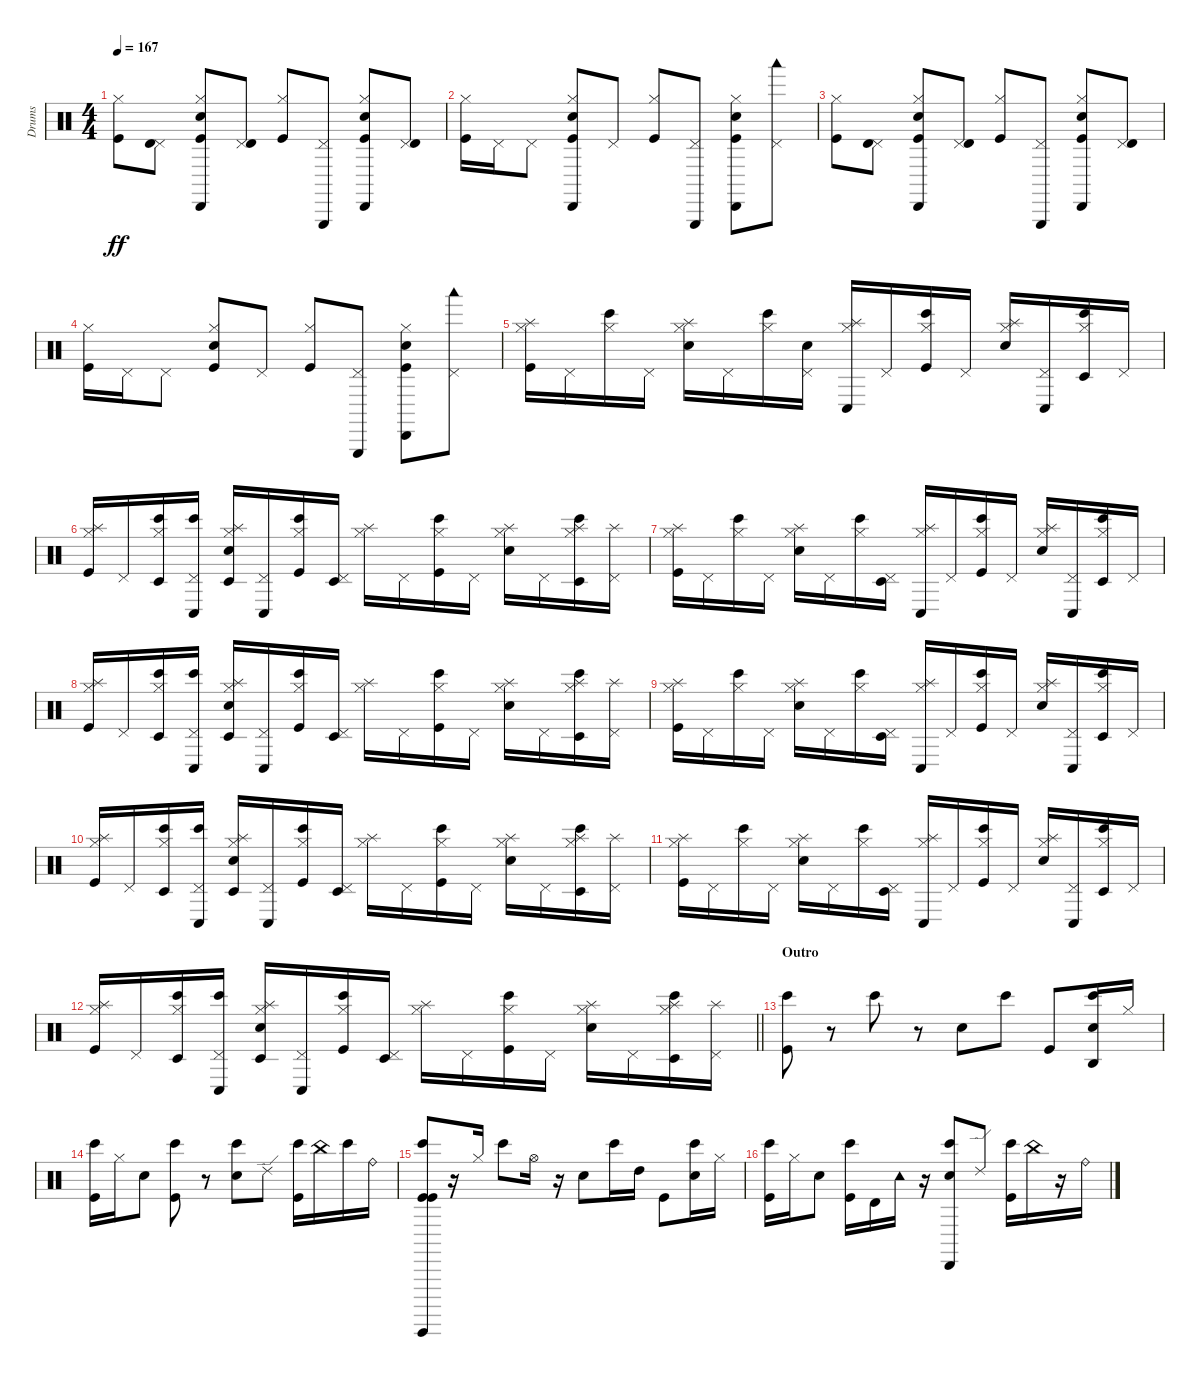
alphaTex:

\track ("Drums" "Drums") {instrument percussion}
\staff {score}
\articulation defaults
\ts (4 4)
\tempo 167
\clef neutral
\ks c
("Kick (hit)" "Hi-Hat (closed)").8{dy ff} ("Pedal Hi-Hat (hit)" "Timbale high (hit)").8 ("Kick (hit)" "Hi-Hat (closed)" "Cabasa (hit)" "Snare (hit) 2").8 ("Pedal Hi-Hat (hit)" "Timbale high (hit)").8 ("Kick (hit)" "Hi-Hat (closed)").8 ("Pedal Hi-Hat (hit)" "Triangle (hit)").8 ("Kick (hit)" "Hi-Hat (closed)" "Cabasa (hit)" "Snare (hit) 2").8 ("Pedal Hi-Hat (hit)" "Timbale high (hit)").8 |
("Kick (hit)" "Hi-Hat (closed)").16 "Pedal Hi-Hat (hit)".16 "Pedal Hi-Hat (hit)".8 ("Kick (hit)" "Hi-Hat (closed)" "Cabasa (hit)" "Snare (hit) 2").8 "Pedal Hi-Hat (hit)".8 ("Kick (hit)" "Hi-Hat (closed)").8 ("Pedal Hi-Hat (hit)" "Triangle (hit)").8 ("Kick (hit)" "Hi-Hat (closed)" "Cabasa (hit)" "Snare (hit) 2").8 ("Pedal Hi-Hat (hit)" "Woodblock low (hit)").8 |
("Kick (hit)" "Hi-Hat (closed)").8 ("Pedal Hi-Hat (hit)" "Timbale high (hit)").8 ("Kick (hit)" "Hi-Hat (closed)" "Cabasa (hit)" "Snare (hit) 2").8 ("Pedal Hi-Hat (hit)" "Timbale high (hit)").8 ("Kick (hit)" "Hi-Hat (closed)").8 ("Pedal Hi-Hat (hit)" "Triangle (hit)").8 ("Kick (hit)" "Hi-Hat (closed)" "Cabasa (hit)" "Snare (hit) 2").8 ("Pedal Hi-Hat (hit)" "Timbale high (hit)").8 |
("Kick (hit)" "Hi-Hat (closed)").16 "Pedal Hi-Hat (hit)".16 "Pedal Hi-Hat (hit)".8 ("Kick (hit)" "Hi-Hat (closed)" "Snare (hit) 2").8 "Pedal Hi-Hat (hit)".8 ("Kick (hit)" "Hi-Hat (closed)").8 ("Pedal Hi-Hat (hit)" "Triangle (hit)").8 ("Kick (hit)" "Hi-Hat (closed)" "Cabasa (hit)" "Snare (hit) 2").8 ("Pedal Hi-Hat (hit)" "Woodblock low (hit)").8 |
("Kick (hit)" "Hi-Hat (closed)" "Splash (hit)").16 "Pedal Hi-Hat (hit)".16 ("Hi-Hat (closed)" "Bongo High (hit)").16 "Pedal Hi-Hat (hit)".16 ("Electric Snare (hit)" "Hi-Hat (closed)" "Splash (hit)").16 "Pedal Hi-Hat (hit)".16 ("Hi-Hat (closed)" "Bongo High (hit)").16 ("Electric Snare (hit)" "Pedal Hi-Hat (hit)").16 ("Hi-Hat (closed)" "Splash (hit)" "Conga low (hit)").16 "Pedal Hi-Hat (hit)".16 ("Kick (hit)" "Hi-Hat (closed)" "Bongo High (hit)").16 "Pedal Hi-Hat (hit)".16 ("Electric Snare (hit)" "Hi-Hat (closed)" "Splash (hit)").16 ("Pedal Hi-Hat (hit)" "Conga low (hit)").16 ("Hi-Hat (closed)" "Bongo High (hit)" "Timbale low (hit)").16 "Pedal Hi-Hat (hit)".16 |
("Kick (hit)" "Hi-Hat (closed)" "Splash (hit)").16 "Pedal Hi-Hat (hit)".16 ("Hi-Hat (closed)" "Bongo High (hit)" "Timbale low (hit)").16 ("Pedal Hi-Hat (hit)" "Bongo High (hit)" "Conga low (hit)").16 ("Electric Snare (hit)" "Hi-Hat (closed)" "Splash (hit)" "Timbale low (hit)").16 ("Pedal Hi-Hat (hit)" "Conga low (hit)").16 ("Kick (hit)" "Hi-Hat (closed)" "Bongo High (hit)").16 ("Pedal Hi-Hat (hit)" "Timbale low (hit)").16 ("Hi-Hat (closed)" "Splash (hit)").16 "Pedal Hi-Hat (hit)".16 ("Kick (hit)" "Hi-Hat (closed)" "Bongo High (hit)").16 "Pedal Hi-Hat (hit)".16 ("Electric Snare (hit)" "Hi-Hat (closed)" "Splash (hit)").16 "Pedal Hi-Hat (hit)".16 ("Hi-Hat (closed)" "Splash (hit)" "Bongo High (hit)" "Timbale low (hit)").16 ("Pedal Hi-Hat (hit)" "Splash (hit)").16 |
("Kick (hit)" "Hi-Hat (closed)" "Splash (hit)").16 "Pedal Hi-Hat (hit)".16 ("Hi-Hat (closed)" "Bongo High (hit)").16 "Pedal Hi-Hat (hit)".16 ("Electric Snare (hit)" "Hi-Hat (closed)" "Splash (hit)").16 "Pedal Hi-Hat (hit)".16 ("Hi-Hat (closed)" "Bongo High (hit)").16 ("Pedal Hi-Hat (hit)" "Timbale low (hit)").16 ("Hi-Hat (closed)" "Splash (hit)" "Conga low (hit)").16 "Pedal Hi-Hat (hit)".16 ("Kick (hit)" "Hi-Hat (closed)" "Bongo High (hit)").16 "Pedal Hi-Hat (hit)".16 ("Electric Snare (hit)" "Hi-Hat (closed)" "Splash (hit)").16 ("Pedal Hi-Hat (hit)" "Conga low (hit)").16 ("Hi-Hat (closed)" "Bongo High (hit)" "Timbale low (hit)").16 "Pedal Hi-Hat (hit)".16 |
("Kick (hit)" "Hi-Hat (closed)" "Splash (hit)").16 "Pedal Hi-Hat (hit)".16 ("Hi-Hat (closed)" "Bongo High (hit)" "Timbale low (hit)").16 ("Pedal Hi-Hat (hit)" "Bongo High (hit)" "Conga low (hit)").16 ("Electric Snare (hit)" "Hi-Hat (closed)" "Splash (hit)" "Timbale low (hit)").16 ("Pedal Hi-Hat (hit)" "Conga low (hit)").16 ("Kick (hit)" "Hi-Hat (closed)" "Bongo High (hit)").16 ("Pedal Hi-Hat (hit)" "Timbale low (hit)").16 ("Hi-Hat (closed)" "Splash (hit)").16 "Pedal Hi-Hat (hit)".16 ("Kick (hit)" "Hi-Hat (closed)" "Bongo High (hit)").16 "Pedal Hi-Hat (hit)".16 ("Electric Snare (hit)" "Hi-Hat (closed)" "Splash (hit)").16 "Pedal Hi-Hat (hit)".16 ("Hi-Hat (closed)" "Splash (hit)" "Bongo High (hit)" "Timbale low (hit)").16 ("Pedal Hi-Hat (hit)" "Splash (hit)").16 |
("Kick (hit)" "Hi-Hat (closed)" "Splash (hit)").16 "Pedal Hi-Hat (hit)".16 ("Hi-Hat (closed)" "Bongo High (hit)").16 "Pedal Hi-Hat (hit)".16 ("Electric Snare (hit)" "Hi-Hat (closed)" "Splash (hit)").16 "Pedal Hi-Hat (hit)".16 ("Hi-Hat (closed)" "Bongo High (hit)").16 ("Pedal Hi-Hat (hit)" "Timbale low (hit)").16 ("Hi-Hat (closed)" "Splash (hit)" "Conga low (hit)").16 "Pedal Hi-Hat (hit)".16 ("Kick (hit)" "Hi-Hat (closed)" "Bongo High (hit)").16 "Pedal Hi-Hat (hit)".16 ("Electric Snare (hit)" "Hi-Hat (closed)" "Splash (hit)").16 ("Pedal Hi-Hat (hit)" "Conga low (hit)").16 ("Hi-Hat (closed)" "Bongo High (hit)" "Timbale low (hit)").16 "Pedal Hi-Hat (hit)".16 |
("Kick (hit)" "Hi-Hat (closed)" "Splash (hit)").16 "Pedal Hi-Hat (hit)".16 ("Hi-Hat (closed)" "Bongo High (hit)" "Timbale low (hit)").16 ("Pedal Hi-Hat (hit)" "Bongo High (hit)" "Conga low (hit)").16 ("Electric Snare (hit)" "Hi-Hat (closed)" "Splash (hit)" "Timbale low (hit)").16 ("Pedal Hi-Hat (hit)" "Conga low (hit)").16 ("Kick (hit)" "Hi-Hat (closed)" "Bongo High (hit)").16 ("Pedal Hi-Hat (hit)" "Timbale low (hit)").16 ("Hi-Hat (closed)" "Splash (hit)").16 "Pedal Hi-Hat (hit)".16 ("Kick (hit)" "Hi-Hat (closed)" "Bongo High (hit)").16 "Pedal Hi-Hat (hit)".16 ("Electric Snare (hit)" "Hi-Hat (closed)" "Splash (hit)").16 "Pedal Hi-Hat (hit)".16 ("Hi-Hat (closed)" "Splash (hit)" "Bongo High (hit)" "Timbale low (hit)").16 ("Pedal Hi-Hat (hit)" "Splash (hit)").16 |
("Kick (hit)" "Hi-Hat (closed)" "Splash (hit)").16 "Pedal Hi-Hat (hit)".16 ("Hi-Hat (closed)" "Bongo High (hit)").16 "Pedal Hi-Hat (hit)".16 ("Electric Snare (hit)" "Hi-Hat (closed)" "Splash (hit)").16 "Pedal Hi-Hat (hit)".16 ("Hi-Hat (closed)" "Bongo High (hit)").16 ("Pedal Hi-Hat (hit)" "Timbale low (hit)").16 ("Hi-Hat (closed)" "Splash (hit)" "Conga low (hit)").16 "Pedal Hi-Hat (hit)".16 ("Kick (hit)" "Hi-Hat (closed)" "Bongo High (hit)").16 "Pedal Hi-Hat (hit)".16 ("Electric Snare (hit)" "Hi-Hat (closed)" "Splash (hit)").16 ("Pedal Hi-Hat (hit)" "Conga low (hit)").16 ("Hi-Hat (closed)" "Bongo High (hit)" "Timbale low (hit)").16 "Pedal Hi-Hat (hit)".16 |
\barLineRight lightlight
("Kick (hit)" "Hi-Hat (closed)" "Splash (hit)").16 "Pedal Hi-Hat (hit)".16 ("Hi-Hat (closed)" "Bongo High (hit)" "Timbale low (hit)").16 ("Pedal Hi-Hat (hit)" "Bongo High (hit)" "Conga low (hit)").16 ("Electric Snare (hit)" "Hi-Hat (closed)" "Splash (hit)" "Timbale low (hit)").16 ("Pedal Hi-Hat (hit)" "Conga low (hit)").16 ("Kick (hit)" "Hi-Hat (closed)" "Bongo High (hit)").16 ("Pedal Hi-Hat (hit)" "Timbale low (hit)").16 ("Hi-Hat (closed)" "Splash (hit)").16 "Pedal Hi-Hat (hit)".16 ("Kick (hit)" "Hi-Hat (closed)" "Bongo High (hit)").16 "Pedal Hi-Hat (hit)".16 ("Electric Snare (hit)" "Hi-Hat (closed)" "Splash (hit)").16 "Pedal Hi-Hat (hit)".16 ("Hi-Hat (closed)" "Splash (hit)" "Bongo High (hit)" "Timbale low (hit)").16 ("Pedal Hi-Hat (hit)" "Splash (hit)").16 |
\section ("" "Outro")
("Kick (hit)" "Bongo High (hit)").8 r.8 "Bongo High (hit)".8 r.8 "Snare (hit) 2".8 "Bongo High (hit)".8 "Kick (hit)".8 ("Snare (hit) 2" "Bongo High (hit)" "Agogo high (hit)").16 "Hi-Hat (closed)".16 |
("Kick (hit)" "Bongo High (hit)").16 "Hi-Hat (closed)".16 "Snare (hit) 2".8 ("Kick (hit)" "Bongo High (hit)").8 r.8 ("Snare (hit) 2" "Bongo High (hit)").8 "Ride (edge) 2".8 ("Kick (hit)" "Bongo High (hit)").16 "China (hit)".16 "Bongo High (hit)".16 "Ride (bell)".16 |
("Kick (hit)" "Kick (hit)" "Bongo High (hit)" "Guiro (hit)").8 r.16 "Hi-Hat (closed)".16 "Bongo High (hit)".8 "Hi-Hat (open)".16 r.16 "Snare (hit) 2".8 "Bongo High (hit)".16 "High Tom (hit)".16 "Kick (hit)".8 ("Snare (hit) 2" "Bongo High (hit)").16 "Hi-Hat (closed)".16 |
("Kick (hit)" "Bongo High (hit)").16 "Hi-Hat (closed)".16 "Snare (hit) 2".8 ("Kick (hit)" "Bongo High (hit)").16 "Timbale high (hit)".16 "Tambourine (hit)".16 r.16 ("Snare (hit) 2" "Bongo High (hit)" "Cabasa (hit)").8 "Ride (edge) 2".8 ("Kick (hit)" "Bongo High (hit)").16 "China (hit)".16 r.16 "Ride (bell)".16
